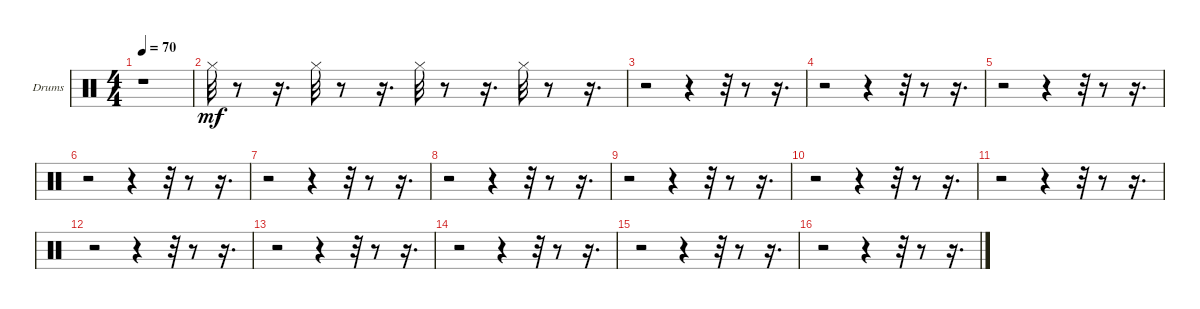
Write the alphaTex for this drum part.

\bracketExtendMode groupsimilarinstruments
\firstSystemTrackNameOrientation horizontal
\otherSystemsTrackNameOrientation horizontal
\track ("" "Drums") {instrument percussion}
\staff {score}
\articulation defaults
\ts (4 4)
\tempo 70
\clef neutral
\ks c
r.1{dy mf} |
"Hi-Hat (closed)".32 r.8 r.16{d} "Hi-Hat (closed)".32 r.8 r.16{d} "Hi-Hat (closed)".32 r.8 r.16{d} "Hi-Hat (closed)".32 r.8 r.16{d} |
r.2 r.4 r.32 r.8 r.16{d} |
r.2 r.4 r.32 r.8 r.16{d} |
r.2 r.4 r.32 r.8 r.16{d} |
r.2 r.4 r.32 r.8 r.16{d} |
r.2 r.4 r.32 r.8 r.16{d} |
r.2 r.4 r.32 r.8 r.16{d} |
r.2 r.4 r.32 r.8 r.16{d} |
r.2 r.4 r.32 r.8 r.16{d} |
r.2 r.4 r.32 r.8 r.16{d} |
r.2 r.4 r.32 r.8 r.16{d} |
r.2 r.4 r.32 r.8 r.16{d} |
r.2 r.4 r.32 r.8 r.16{d} |
r.2 r.4 r.32 r.8 r.16{d} |
r.2 r.4 r.32 r.8 r.16{d}
